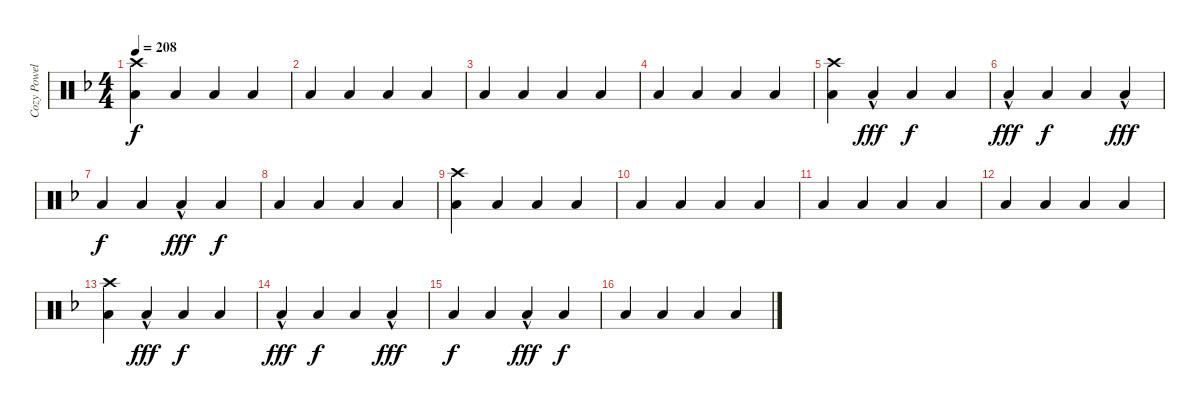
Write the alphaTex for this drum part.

\track ("Cozy Powell" "Cozy Powel") {instrument percussion}
\staff {score}
\articulation defaults
\ts (4 4)
\tempo 208
\clef neutral
\ks f
("Crash high (hit)" "Low Tom (hit)").4{dy f} "Low Tom (hit)".4{volume 10} "Low Tom (hit)".4 "Low Tom (hit)".4 |
"Low Tom (hit)".4 "Low Tom (hit)".4 "Low Tom (hit)".4 "Low Tom (hit)".4 |
"Low Tom (hit)".4 "Low Tom (hit)".4 "Low Tom (hit)".4 "Low Tom (hit)".4 |
"Low Tom (hit)".4 "Low Tom (hit)".4 "Low Tom (hit)".4 "Low Tom (hit)".4 |
("Low Tom (hit)" "Crash high (hit)").4{volume 13} "Low Tom (hit)"{hac}.4{dy fff} "Low Tom (hit)".4{dy f} "Low Tom (hit)".4 |
"Low Tom (hit)"{hac}.4{dy fff} "Low Tom (hit)".4{dy f} "Low Tom (hit)".4 "Low Tom (hit)"{hac}.4{dy fff} |
"Low Tom (hit)".4{dy f} "Low Tom (hit)".4 "Low Tom (hit)"{hac}.4{dy fff} "Low Tom (hit)".4{dy f} |
"Low Tom (hit)".4 "Low Tom (hit)".4 "Low Tom (hit)".4 "Low Tom (hit)".4 |
("Crash high (hit)" "Low Tom (hit)").4 "Low Tom (hit)".4{volume 10} "Low Tom (hit)".4 "Low Tom (hit)".4 |
"Low Tom (hit)".4 "Low Tom (hit)".4 "Low Tom (hit)".4 "Low Tom (hit)".4 |
"Low Tom (hit)".4 "Low Tom (hit)".4 "Low Tom (hit)".4 "Low Tom (hit)".4 |
"Low Tom (hit)".4 "Low Tom (hit)".4 "Low Tom (hit)".4 "Low Tom (hit)".4 |
("Low Tom (hit)" "Crash high (hit)").4{volume 13} "Low Tom (hit)"{hac}.4{dy fff} "Low Tom (hit)".4{dy f} "Low Tom (hit)".4 |
"Low Tom (hit)"{hac}.4{dy fff} "Low Tom (hit)".4{dy f} "Low Tom (hit)".4 "Low Tom (hit)"{hac}.4{dy fff} |
"Low Tom (hit)".4{dy f} "Low Tom (hit)".4 "Low Tom (hit)"{hac}.4{dy fff} "Low Tom (hit)".4{dy f} |
"Low Tom (hit)".4 "Low Tom (hit)".4 "Low Tom (hit)".4 "Low Tom (hit)".4
